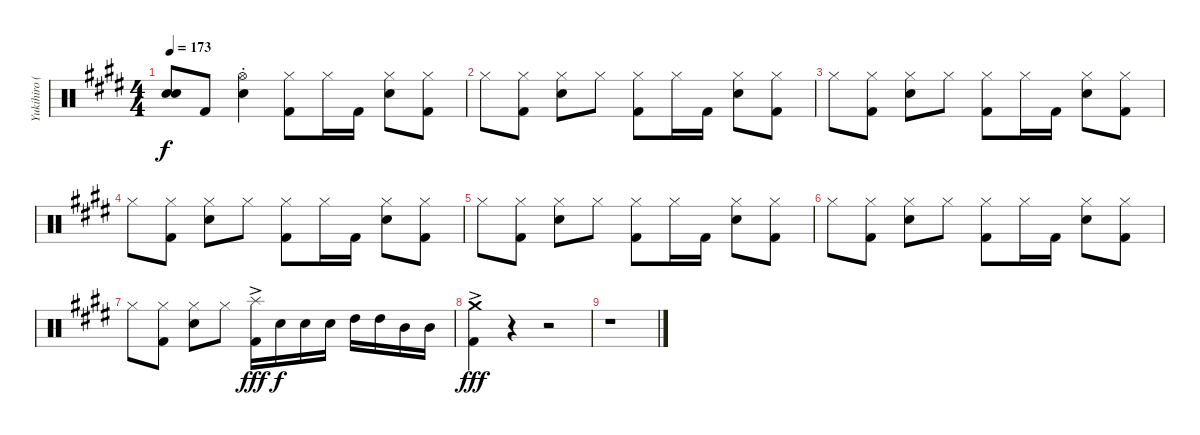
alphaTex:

\track ("Yukihiro (Drums)" "Yukihiro (") {instrument percussion}
\staff {score}
\articulation defaults
\ts (4 4)
\tempo 173
\clef neutral
\ks e
("Snare (hit)"{t} "Snare (hit)"{t}).8{dy f} "Kick (hit) 2".8 ("Hi-Hat (open)"{st} "Electric Snare (hit)").4 ("Hi-Hat (closed)" "Kick (hit) 2").8 "Hi-Hat (closed)".16 "Kick (hit) 2".16 ("Hi-Hat (closed)" "Electric Snare (hit)").8 ("Hi-Hat (closed)" "Kick (hit) 2").8 |
"Hi-Hat (closed)".8 ("Hi-Hat (closed)" "Kick (hit) 2").8 ("Hi-Hat (closed)" "Electric Snare (hit)").8 "Hi-Hat (closed)".8 ("Hi-Hat (closed)" "Kick (hit) 2").8 "Hi-Hat (closed)".16 "Kick (hit) 2".16 ("Hi-Hat (closed)" "Electric Snare (hit)").8 ("Hi-Hat (closed)" "Kick (hit) 2").8 |
"Hi-Hat (closed)".8 ("Hi-Hat (closed)" "Kick (hit) 2").8 ("Hi-Hat (closed)" "Electric Snare (hit)").8 "Hi-Hat (closed)".8 ("Hi-Hat (closed)" "Kick (hit) 2").8 "Hi-Hat (closed)".16 "Kick (hit) 2".16 ("Hi-Hat (closed)" "Electric Snare (hit)").8 ("Hi-Hat (closed)" "Kick (hit) 2").8 |
"Hi-Hat (closed)".8 ("Hi-Hat (closed)" "Kick (hit) 2").8 ("Hi-Hat (closed)" "Electric Snare (hit)").8 "Hi-Hat (closed)".8 ("Hi-Hat (closed)" "Kick (hit) 2").8 "Hi-Hat (closed)".16 "Kick (hit) 2".16 ("Hi-Hat (closed)" "Electric Snare (hit)").8 ("Hi-Hat (closed)" "Kick (hit) 2").8 |
"Hi-Hat (closed)".8 ("Hi-Hat (closed)" "Kick (hit) 2").8 ("Hi-Hat (closed)" "Electric Snare (hit)").8 "Hi-Hat (closed)".8 ("Hi-Hat (closed)" "Kick (hit) 2").8 "Hi-Hat (closed)".16 "Kick (hit) 2".16 ("Hi-Hat (closed)" "Electric Snare (hit)").8 ("Hi-Hat (closed)" "Kick (hit) 2").8 |
"Hi-Hat (closed)".8 ("Hi-Hat (closed)" "Kick (hit) 2").8 ("Hi-Hat (closed)" "Electric Snare (hit)").8 "Hi-Hat (closed)".8 ("Hi-Hat (closed)" "Kick (hit) 2").8 "Hi-Hat (closed)".16 "Kick (hit) 2".16 ("Hi-Hat (closed)" "Electric Snare (hit)").8 ("Hi-Hat (closed)" "Kick (hit) 2").8 |
"Hi-Hat (closed)".8 ("Hi-Hat (closed)" "Kick (hit) 2").8 ("Hi-Hat (closed)" "Electric Snare (hit)").8 "Hi-Hat (closed)".8 ("Splash (hit)"{ac} "Kick (hit) 2").16{dy fff} "Electric Snare (hit)".16{dy f} "Electric Snare (hit)".16 "Electric Snare (hit)".16 "High Tom (hit)".16 "High Tom (hit)".16 "Mid Tom (hit)".16 "Mid Tom (hit)".16 |
("Crash medium (hit)"{ac} "Kick (hit) 2").4{dy fff} r.4 r.2 |
r.1
